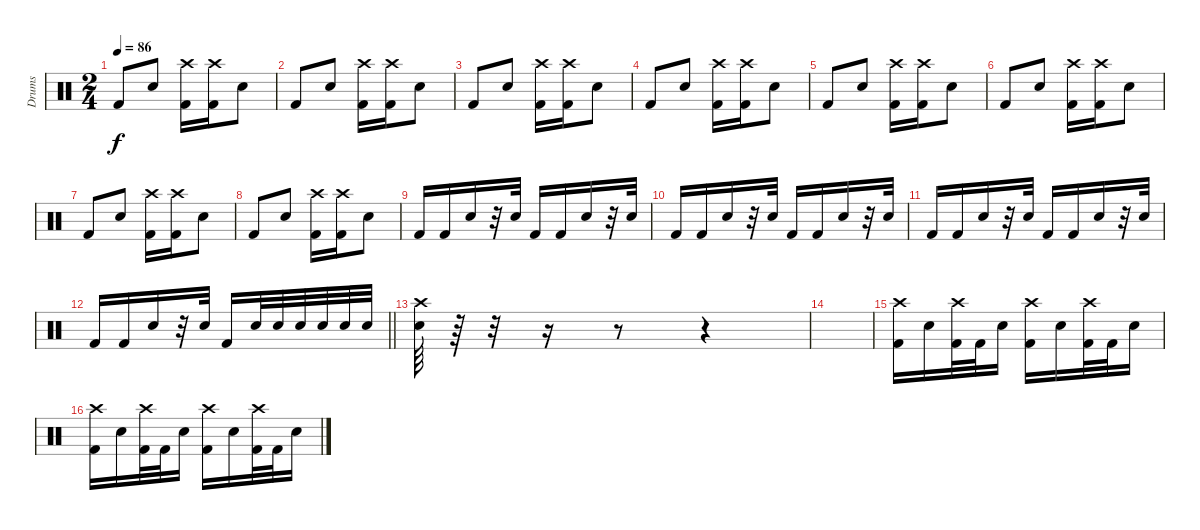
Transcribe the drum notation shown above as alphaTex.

\track ("Drums" "Drums") {instrument percussion}
\staff {score}
\articulation defaults
\ts (2 4)
\tempo 86
\clef neutral
\ks c "Kick (hit) 2".8{dy f} "Snare (hit) 2".8
("Crash high (hit)" "Kick (hit) 2").16 ("Crash high (hit)" "Kick (hit) 2").16 "Snare (hit) 2".8 |
"Kick (hit) 2".8 "Snare (hit) 2".8 ("Crash high (hit)" "Kick (hit) 2").16 ("Crash high (hit)" "Kick (hit) 2").16 "Snare (hit) 2".8 |
"Kick (hit) 2".8 "Snare (hit) 2".8 ("Crash high (hit)" "Kick (hit) 2").16 ("Crash high (hit)" "Kick (hit) 2").16 "Snare (hit) 2".8 |
"Kick (hit) 2".8 "Snare (hit) 2".8 ("Crash high (hit)" "Kick (hit) 2").16 ("Crash high (hit)" "Kick (hit) 2").16 "Snare (hit) 2".8 |
"Kick (hit) 2".8 "Snare (hit) 2".8 ("Crash high (hit)" "Kick (hit) 2").16 ("Crash high (hit)" "Kick (hit) 2").16 "Snare (hit) 2".8 |
"Kick (hit) 2".8 "Snare (hit) 2".8 ("Crash high (hit)" "Kick (hit) 2").16 ("Crash high (hit)" "Kick (hit) 2").16 "Snare (hit) 2".8 |
"Kick (hit) 2".8 "Snare (hit) 2".8 ("Crash high (hit)" "Kick (hit) 2").16 ("Crash high (hit)" "Kick (hit) 2").16 "Snare (hit) 2".8 |
"Kick (hit) 2".8 "Snare (hit) 2".8 ("Crash high (hit)" "Kick (hit) 2").16 ("Crash high (hit)" "Kick (hit) 2").16 "Snare (hit) 2".8 |
"Kick (hit) 2".16 "Kick (hit) 2".16 "Snare (hit) 2".16 r.32 "Snare (hit) 2".32 "Kick (hit) 2".16 "Kick (hit) 2".16 "Snare (hit) 2".16 r.32 "Snare (hit) 2".32 |
"Kick (hit) 2".16 "Kick (hit) 2".16 "Snare (hit) 2".16 r.32 "Snare (hit) 2".32 "Kick (hit) 2".16 "Kick (hit) 2".16 "Snare (hit) 2".16 r.32 "Snare (hit) 2".32 |
"Kick (hit) 2".16 "Kick (hit) 2".16 "Snare (hit) 2".16 r.32 "Snare (hit) 2".32 "Kick (hit) 2".16 "Kick (hit) 2".16 "Snare (hit) 2".16 r.32 "Snare (hit) 2".32 |
\barLineRight lightlight "Kick (hit) 2".16 "Kick (hit) 2".16 "Snare (hit) 2".16
r.32 "Snare (hit) 2".32 "Kick (hit) 2".16 "Snare (hit) 2".32 "Snare (hit) 2".32 "Snare (hit) 2".32 "Snare (hit) 2".32 "Snare (hit) 2".32 "Snare (hit) 2".32 |
("Crash high (hit)" "Snare (hit) 2").64 r.64 r.32 r.16 r.8 r.4 |
|
("Crash high (hit)" "Kick (hit) 2").16 "Snare (hit) 2".16 ("Crash high (hit)" "Kick (hit) 2").32 "Kick (hit) 2".32 "Snare (hit) 2".16 ("Crash high (hit)" "Kick (hit) 2").16 "Snare (hit) 2".16 ("Crash high (hit)" "Kick (hit) 2").32 "Kick (hit) 2".32 "Snare (hit) 2".16 |
("Crash high (hit)" "Kick (hit) 2").16 "Snare (hit) 2".16 ("Crash high (hit)" "Kick (hit) 2").32 "Kick (hit) 2".32 "Snare (hit) 2".16 ("Crash high (hit)" "Kick (hit) 2").16 "Snare (hit) 2".16 ("Crash high (hit)" "Kick (hit) 2").32 "Kick (hit) 2".32 "Snare (hit) 2".16
